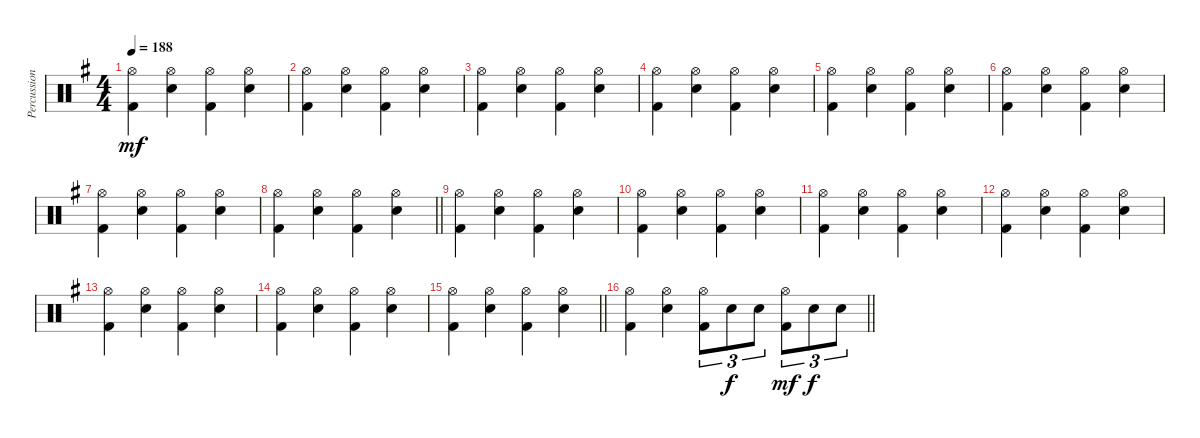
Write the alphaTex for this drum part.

\track ("Percussion" "Percussion") {instrument percussion}
\staff {score}
\articulation defaults
\ts (4 4)
\tempo 188
\clef neutral
\ks g
("Hi-Hat (open)" "Kick (hit) 2").4{dy mf} ("Hi-Hat (open)" "Snare (hit) 2").4 ("Hi-Hat (open)" "Kick (hit) 2").4 ("Hi-Hat (open)" "Snare (hit) 2").4 |
("Hi-Hat (open)" "Kick (hit) 2").4 ("Hi-Hat (open)" "Snare (hit) 2").4 ("Hi-Hat (open)" "Kick (hit) 2").4 ("Hi-Hat (open)" "Snare (hit) 2").4 |
("Hi-Hat (open)" "Kick (hit) 2").4 ("Hi-Hat (open)" "Snare (hit) 2").4 ("Hi-Hat (open)" "Kick (hit) 2").4 ("Hi-Hat (open)" "Snare (hit) 2").4 |
("Hi-Hat (open)" "Kick (hit) 2").4 ("Hi-Hat (open)" "Snare (hit) 2").4 ("Hi-Hat (open)" "Kick (hit) 2").4 ("Hi-Hat (open)" "Snare (hit) 2").4 |
("Hi-Hat (open)" "Kick (hit) 2").4 ("Hi-Hat (open)" "Snare (hit) 2").4 ("Hi-Hat (open)" "Kick (hit) 2").4 ("Hi-Hat (open)" "Snare (hit) 2").4 |
("Hi-Hat (open)" "Kick (hit) 2").4 ("Hi-Hat (open)" "Snare (hit) 2").4 ("Hi-Hat (open)" "Kick (hit) 2").4 ("Hi-Hat (open)" "Snare (hit) 2").4 |
("Hi-Hat (open)" "Kick (hit) 2").4 ("Hi-Hat (open)" "Snare (hit) 2").4 ("Hi-Hat (open)" "Kick (hit) 2").4 ("Hi-Hat (open)" "Snare (hit) 2").4 |
\barLineRight lightlight
("Hi-Hat (open)" "Kick (hit) 2").4 ("Hi-Hat (open)" "Snare (hit) 2").4 ("Hi-Hat (open)" "Kick (hit) 2").4 ("Hi-Hat (open)" "Snare (hit) 2").4 |
("Hi-Hat (open)" "Kick (hit) 2").4 ("Hi-Hat (open)" "Snare (hit) 2").4 ("Hi-Hat (open)" "Kick (hit) 2").4 ("Hi-Hat (open)" "Snare (hit) 2").4 |
("Hi-Hat (open)" "Kick (hit) 2").4 ("Hi-Hat (open)" "Snare (hit) 2").4 ("Hi-Hat (open)" "Kick (hit) 2").4 ("Hi-Hat (open)" "Snare (hit) 2").4 |
("Hi-Hat (open)" "Kick (hit) 2").4 ("Hi-Hat (open)" "Snare (hit) 2").4 ("Hi-Hat (open)" "Kick (hit) 2").4 ("Hi-Hat (open)" "Snare (hit) 2").4 |
("Hi-Hat (open)" "Kick (hit) 2").4 ("Hi-Hat (open)" "Snare (hit) 2").4 ("Hi-Hat (open)" "Kick (hit) 2").4 ("Hi-Hat (open)" "Snare (hit) 2").4 |
("Hi-Hat (open)" "Kick (hit) 2").4 ("Hi-Hat (open)" "Snare (hit) 2").4 ("Hi-Hat (open)" "Kick (hit) 2").4 ("Hi-Hat (open)" "Snare (hit) 2").4 |
("Hi-Hat (open)" "Kick (hit) 2").4 ("Hi-Hat (open)" "Snare (hit) 2").4 ("Hi-Hat (open)" "Kick (hit) 2").4 ("Hi-Hat (open)" "Snare (hit) 2").4 |
\barLineRight lightlight
("Hi-Hat (open)" "Kick (hit) 2").4 ("Hi-Hat (open)" "Snare (hit) 2").4 ("Hi-Hat (open)" "Kick (hit) 2").4 ("Hi-Hat (open)" "Snare (hit) 2").4 |
\barLineRight lightlight
("Hi-Hat (open)" "Kick (hit) 2").4 ("Hi-Hat (open)" "Snare (hit) 2").4 ("Hi-Hat (open)" "Kick (hit) 2").8{tu (3 2)} "Snare (hit) 2".8{tu (3 2) dy f} "Snare (hit) 2".8{tu (3 2)} ("Hi-Hat (open)" "Kick (hit) 2").8{tu (3 2) dy mf} "Snare (hit) 2".8{tu (3 2) dy f} "Snare (hit) 2".8{tu (3 2)}
